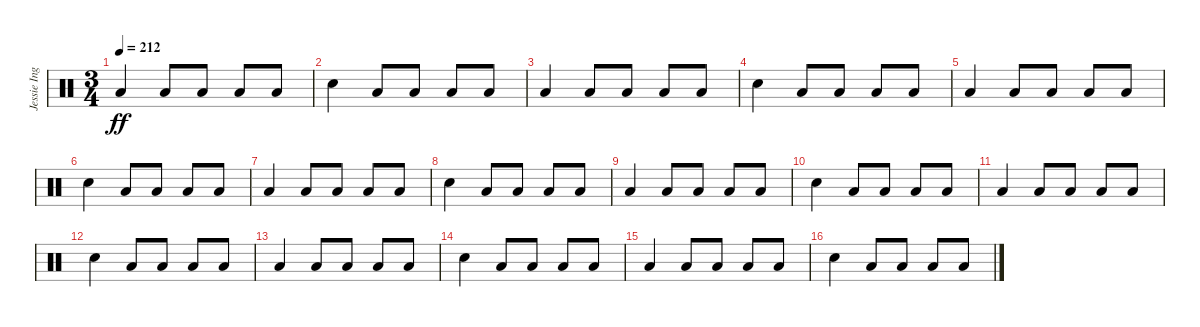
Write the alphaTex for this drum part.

\track ("Jessie Ingelevics" "Jessie Ing") {instrument percussion}
\staff {score}
\articulation defaults
\ts (3 4)
\tempo 212
\clef neutral
\ks c "Low Tom (hit)".4{dy ff} "Low Floor Tom (hit)".8 "Low Floor Tom (hit)".8 "Low Floor Tom (hit)".8 "Low Floor Tom (hit)".8
|
"Electric Snare (hit)".4 "Low Floor Tom (hit)".8 "Low Floor Tom (hit)".8 "Low Floor Tom (hit)".8 "Low Floor Tom (hit)".8 |
"Low Tom (hit)".4 "Low Floor Tom (hit)".8 "Low Floor Tom (hit)".8 "Low Floor Tom (hit)".8 "Low Floor Tom (hit)".8 |
"Electric Snare (hit)".4 "Low Floor Tom (hit)".8 "Low Floor Tom (hit)".8 "Low Floor Tom (hit)".8 "Low Floor Tom (hit)".8 |
"Low Tom (hit)".4 "Low Floor Tom (hit)".8 "Low Floor Tom (hit)".8 "Low Floor Tom (hit)".8 "Low Floor Tom (hit)".8 |
"Electric Snare (hit)".4 "Low Floor Tom (hit)".8 "Low Floor Tom (hit)".8 "Low Floor Tom (hit)".8 "Low Floor Tom (hit)".8 |
"Low Tom (hit)".4 "Low Floor Tom (hit)".8 "Low Floor Tom (hit)".8 "Low Floor Tom (hit)".8 "Low Floor Tom (hit)".8 |
"Electric Snare (hit)".4 "Low Floor Tom (hit)".8 "Low Floor Tom (hit)".8 "Low Floor Tom (hit)".8 "Low Floor Tom (hit)".8 |
"Low Tom (hit)".4 "Low Floor Tom (hit)".8 "Low Floor Tom (hit)".8 "Low Floor Tom (hit)".8 "Low Floor Tom (hit)".8 |
"Electric Snare (hit)".4 "Low Floor Tom (hit)".8 "Low Floor Tom (hit)".8 "Low Floor Tom (hit)".8 "Low Floor Tom (hit)".8 |
"Low Tom (hit)".4 "Low Floor Tom (hit)".8 "Low Floor Tom (hit)".8 "Low Floor Tom (hit)".8 "Low Floor Tom (hit)".8 |
"Electric Snare (hit)".4 "Low Floor Tom (hit)".8 "Low Floor Tom (hit)".8 "Low Floor Tom (hit)".8 "Low Floor Tom (hit)".8 |
"Low Tom (hit)".4 "Low Floor Tom (hit)".8 "Low Floor Tom (hit)".8 "Low Floor Tom (hit)".8 "Low Floor Tom (hit)".8 |
"Electric Snare (hit)".4 "Low Floor Tom (hit)".8 "Low Floor Tom (hit)".8 "Low Floor Tom (hit)".8 "Low Floor Tom (hit)".8 |
"Low Tom (hit)".4 "Low Floor Tom (hit)".8 "Low Floor Tom (hit)".8 "Low Floor Tom (hit)".8 "Low Floor Tom (hit)".8 |
"Electric Snare (hit)".4 "Low Floor Tom (hit)".8 "Low Floor Tom (hit)".8 "Low Floor Tom (hit)".8 "Low Floor Tom (hit)".8
